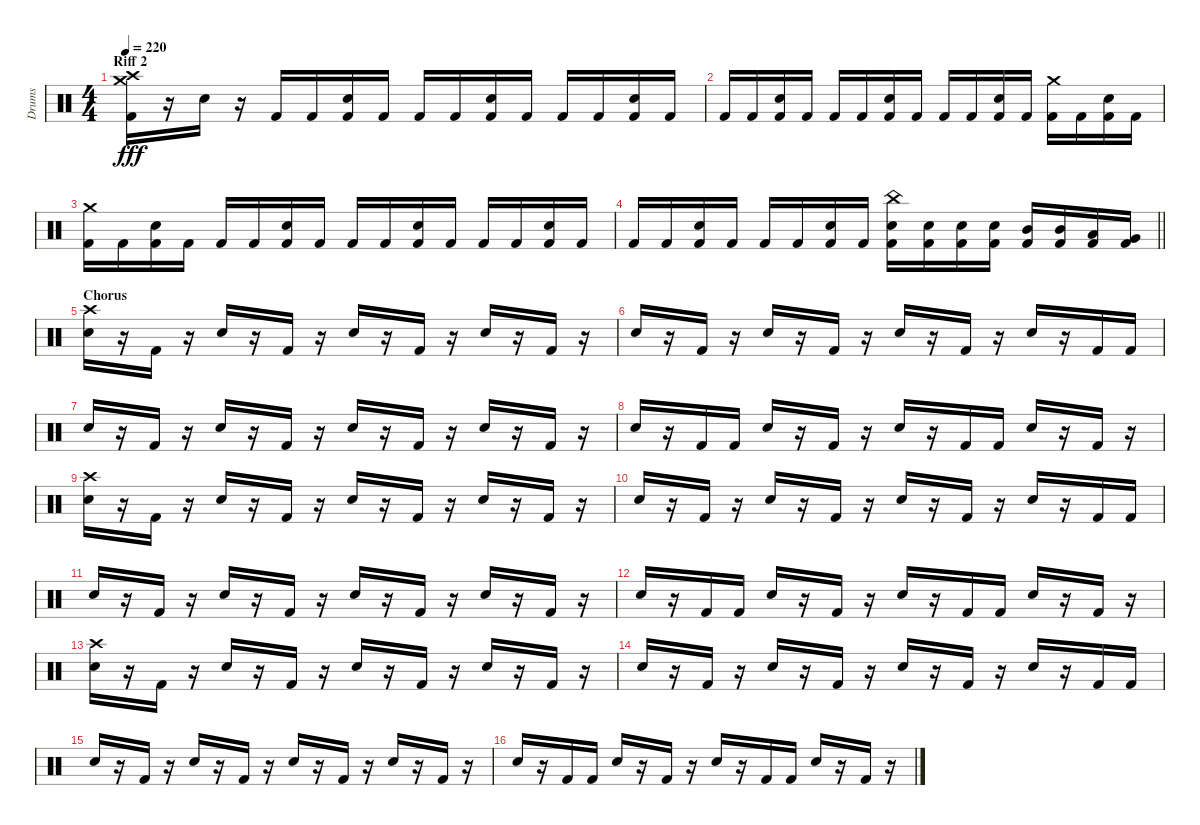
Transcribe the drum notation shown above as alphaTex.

\track ("Drums" "Drums") {instrument percussion}
\staff {score}
\articulation defaults
\ts (4 4)
\section ("" "Riff 2")
\tempo 220
\clef neutral
\ks c
("Crash high (hit)" "Crash medium (hit)" "Kick (hit) 2").16{dy fff} r.16 "Snare (hit) 2".16 r.16 "Kick (hit) 2".16 "Kick (hit) 2".16 ("Kick (hit) 2" "Snare (hit) 2").16 "Kick (hit) 2".16 "Kick (hit) 2".16 "Kick (hit) 2".16 ("Kick (hit) 2" "Snare (hit) 2").16 "Kick (hit) 2".16 "Kick (hit) 2".16 "Kick (hit) 2".16 ("Kick (hit) 2" "Snare (hit) 2").16 "Kick (hit) 2".16 |
"Kick (hit) 2".16 "Kick (hit) 2".16 ("Kick (hit) 2" "Snare (hit) 2").16 "Kick (hit) 2".16 "Kick (hit) 2".16 "Kick (hit) 2".16 ("Kick (hit) 2" "Snare (hit) 2").16 "Kick (hit) 2".16 "Kick (hit) 2".16 "Kick (hit) 2".16 ("Kick (hit) 2" "Snare (hit) 2").16 "Kick (hit) 2".16 ("Crash medium (hit)" "Kick (hit) 2").16 "Kick (hit) 2".16 ("Kick (hit) 2" "Snare (hit) 2").16 "Kick (hit) 2".16 |
("Crash medium (hit)" "Kick (hit) 2").16 "Kick (hit) 2".16 ("Kick (hit) 2" "Snare (hit) 2").16 "Kick (hit) 2".16 "Kick (hit) 2".16 "Kick (hit) 2".16 ("Kick (hit) 2" "Snare (hit) 2").16 "Kick (hit) 2".16 "Kick (hit) 2".16 "Kick (hit) 2".16 ("Kick (hit) 2" "Snare (hit) 2").16 "Kick (hit) 2".16 "Kick (hit) 2".16 "Kick (hit) 2".16 ("Kick (hit) 2" "Snare (hit) 2").16 "Kick (hit) 2".16 |
\barLineRight lightlight "Kick (hit) 2".16 "Kick (hit) 2".16
("Kick (hit) 2" "Snare (hit) 2").16 "Kick (hit) 2".16 "Kick (hit) 2".16 "Kick (hit) 2".16 ("Kick (hit) 2" "Snare (hit) 2").16 "Kick (hit) 2".16 ("China (hit)" "Kick (hit) 2" "Snare (hit) 2").16 ("Kick (hit) 2" "Snare (hit) 2").16 ("Kick (hit) 2" "Snare (hit) 2").16 ("Kick (hit) 2" "Snare (hit) 2").16 ("Kick (hit) 2" "Mid Tom (hit)").16 ("Kick (hit) 2" "Mid Tom (hit)").16 ("Kick (hit) 2" "Low Tom (hit)").16 ("Kick (hit) 2" "Very Low Tom (hit)").16 |
\section ("" "Chorus")
("Crash high (hit)" "Snare (hit) 2").16 r.16 "Kick (hit) 2".16 r.16 "Snare (hit) 2".16 r.16 "Kick (hit) 2".16 r.16 "Snare (hit) 2".16 r.16 "Kick (hit) 2".16 r.16 "Snare (hit) 2".16 r.16 "Kick (hit) 2".16 r.16 |
"Snare (hit) 2".16 r.16 "Kick (hit) 2".16 r.16 "Snare (hit) 2".16 r.16 "Kick (hit) 2".16 r.16 "Snare (hit) 2".16 r.16 "Kick (hit) 2".16 r.16 "Snare (hit) 2".16 r.16 "Kick (hit) 2".16 "Kick (hit) 2".16 |
"Snare (hit) 2".16 r.16 "Kick (hit) 2".16 r.16 "Snare (hit) 2".16 r.16 "Kick (hit) 2".16 r.16 "Snare (hit) 2".16 r.16 "Kick (hit) 2".16 r.16 "Snare (hit) 2".16 r.16 "Kick (hit) 2".16 r.16 |
"Snare (hit) 2".16 r.16 "Kick (hit) 2".16 "Kick (hit) 2".16 "Snare (hit) 2".16 r.16 "Kick (hit) 2".16 r.16 "Snare (hit) 2".16 r.16 "Kick (hit) 2".16 "Kick (hit) 2".16 "Snare (hit) 2".16 r.16 "Kick (hit) 2".16 r.16 |
("Crash high (hit)" "Snare (hit) 2").16 r.16 "Kick (hit) 2".16 r.16 "Snare (hit) 2".16 r.16 "Kick (hit) 2".16 r.16 "Snare (hit) 2".16 r.16 "Kick (hit) 2".16 r.16 "Snare (hit) 2".16 r.16 "Kick (hit) 2".16 r.16 |
"Snare (hit) 2".16 r.16 "Kick (hit) 2".16 r.16 "Snare (hit) 2".16 r.16 "Kick (hit) 2".16 r.16 "Snare (hit) 2".16 r.16 "Kick (hit) 2".16 r.16 "Snare (hit) 2".16 r.16 "Kick (hit) 2".16 "Kick (hit) 2".16 |
"Snare (hit) 2".16 r.16 "Kick (hit) 2".16 r.16 "Snare (hit) 2".16 r.16 "Kick (hit) 2".16 r.16 "Snare (hit) 2".16 r.16 "Kick (hit) 2".16 r.16 "Snare (hit) 2".16 r.16 "Kick (hit) 2".16 r.16 |
"Snare (hit) 2".16 r.16 "Kick (hit) 2".16 "Kick (hit) 2".16 "Snare (hit) 2".16 r.16 "Kick (hit) 2".16 r.16 "Snare (hit) 2".16 r.16 "Kick (hit) 2".16 "Kick (hit) 2".16 "Snare (hit) 2".16 r.16 "Kick (hit) 2".16 r.16 |
("Crash high (hit)" "Snare (hit) 2").16 r.16 "Kick (hit) 2".16 r.16 "Snare (hit) 2".16 r.16 "Kick (hit) 2".16 r.16 "Snare (hit) 2".16 r.16 "Kick (hit) 2".16 r.16 "Snare (hit) 2".16 r.16 "Kick (hit) 2".16 r.16 |
"Snare (hit) 2".16 r.16 "Kick (hit) 2".16 r.16 "Snare (hit) 2".16 r.16 "Kick (hit) 2".16 r.16 "Snare (hit) 2".16 r.16 "Kick (hit) 2".16 r.16 "Snare (hit) 2".16 r.16 "Kick (hit) 2".16 "Kick (hit) 2".16 |
"Snare (hit) 2".16 r.16 "Kick (hit) 2".16 r.16 "Snare (hit) 2".16 r.16 "Kick (hit) 2".16 r.16 "Snare (hit) 2".16 r.16 "Kick (hit) 2".16 r.16 "Snare (hit) 2".16 r.16 "Kick (hit) 2".16 r.16 |
"Snare (hit) 2".16 r.16 "Kick (hit) 2".16 "Kick (hit) 2".16 "Snare (hit) 2".16 r.16 "Kick (hit) 2".16 r.16 "Snare (hit) 2".16 r.16 "Kick (hit) 2".16 "Kick (hit) 2".16 "Snare (hit) 2".16 r.16 "Kick (hit) 2".16 r.16
